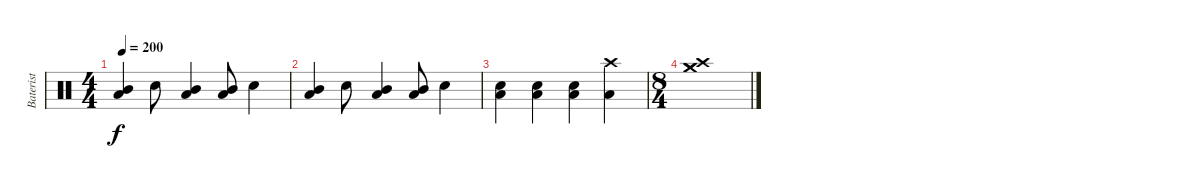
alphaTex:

\track ("Baterist" "Baterist") {instrument percussion}
\staff {score}
\articulation defaults
\ts (4 4)
\tempo 200
\clef neutral
\ks c
("Low Floor Tom (hit)" "Mid Tom (hit)").4{dy f} "Snare (hit) 2".8 ("Low Floor Tom (hit)" "Mid Tom (hit)").4 ("Low Floor Tom (hit)" "Mid Tom (hit)").8 "Snare (hit) 2".4 |
("Low Floor Tom (hit)" "Mid Tom (hit)").4 "Snare (hit) 2".8 ("Low Floor Tom (hit)" "Mid Tom (hit)").4 ("Low Floor Tom (hit)" "Mid Tom (hit)").8 "Snare (hit) 2".4 |
("Low Floor Tom (hit)" "Snare (hit) 2").4 ("Snare (hit) 2" "Low Floor Tom (hit)").4 ("Low Floor Tom (hit)" "Snare (hit) 2").4 ("Low Floor Tom (hit)" "Crash high (hit)").4 |
\ts (8 4)
("Crash high (hit)" "Crash medium (hit)" "Crash medium (hit)").1
